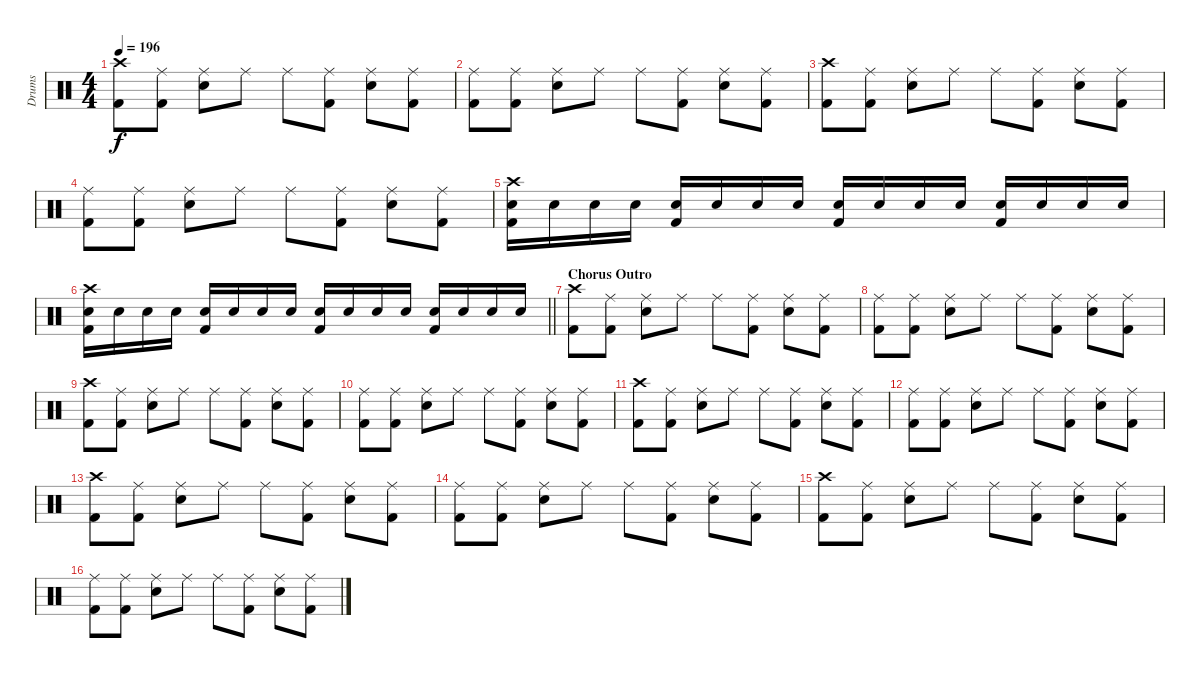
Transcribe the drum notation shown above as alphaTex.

\track ("Drums" "Drums") {instrument percussion}
\staff {score}
\articulation defaults
\ts (4 4)
\tempo 196
\clef neutral
\ks c
("Crash high (hit)" "Kick (hit) 2").8{dy f} ("Ride (middle)" "Kick (hit) 2").8 ("Ride (middle)" "Electric Snare (hit)").8 "Ride (middle)".8 "Ride (middle)".8 ("Ride (middle)" "Kick (hit) 2").8 ("Ride (middle)" "Electric Snare (hit)").8 ("Ride (middle)" "Kick (hit) 2").8 |
("Ride (middle)" "Kick (hit) 2").8 ("Ride (middle)" "Kick (hit) 2").8 ("Ride (middle)" "Electric Snare (hit)").8 "Ride (middle)".8 "Ride (middle)".8 ("Ride (middle)" "Kick (hit) 2").8 ("Ride (middle)" "Electric Snare (hit)").8 ("Ride (middle)" "Kick (hit) 2").8 |
("Crash high (hit)" "Kick (hit) 2").8 ("Ride (middle)" "Kick (hit) 2").8 ("Ride (middle)" "Electric Snare (hit)").8 "Ride (middle)".8 "Ride (middle)".8 ("Ride (middle)" "Kick (hit) 2").8 ("Ride (middle)" "Electric Snare (hit)").8 ("Ride (middle)" "Kick (hit) 2").8 |
("Ride (middle)" "Kick (hit) 2").8 ("Ride (middle)" "Kick (hit) 2").8 ("Ride (middle)" "Electric Snare (hit)").8 "Ride (middle)".8 "Ride (middle)".8 ("Ride (middle)" "Kick (hit) 2").8 ("Ride (middle)" "Electric Snare (hit)").8 ("Ride (middle)" "Kick (hit) 2").8 |
("Crash high (hit)" "Electric Snare (hit)" "Kick (hit) 2").16 "Electric Snare (hit)".16 "Electric Snare (hit)".16 "Electric Snare (hit)".16 ("Electric Snare (hit)" "Kick (hit) 2").16 "Electric Snare (hit)".16 "Electric Snare (hit)".16 "Electric Snare (hit)".16 ("Electric Snare (hit)" "Kick (hit) 2").16 "Electric Snare (hit)".16 "Electric Snare (hit)".16 "Electric Snare (hit)".16 ("Electric Snare (hit)" "Kick (hit) 2").16 "Electric Snare (hit)".16 "Electric Snare (hit)".16 "Electric Snare (hit)".16 |
\barLineRight lightlight
("Crash high (hit)" "Electric Snare (hit)" "Kick (hit) 2").16 "Electric Snare (hit)".16 "Electric Snare (hit)".16 "Electric Snare (hit)".16 ("Electric Snare (hit)" "Kick (hit) 2").16 "Electric Snare (hit)".16 "Electric Snare (hit)".16 "Electric Snare (hit)".16 ("Electric Snare (hit)" "Kick (hit) 2").16 "Electric Snare (hit)".16 "Electric Snare (hit)".16 "Electric Snare (hit)".16 ("Electric Snare (hit)" "Kick (hit) 2").16 "Electric Snare (hit)".16 "Electric Snare (hit)".16 "Electric Snare (hit)".16 |
\section ("" "Chorus Outro")
("Crash high (hit)" "Kick (hit) 2").8 ("Ride (middle)" "Kick (hit) 2").8 ("Ride (middle)" "Electric Snare (hit)").8 "Ride (middle)".8 "Ride (middle)".8 ("Ride (middle)" "Kick (hit) 2").8 ("Ride (middle)" "Electric Snare (hit)").8 ("Ride (middle)" "Kick (hit) 2").8 |
("Ride (middle)" "Kick (hit) 2").8 ("Ride (middle)" "Kick (hit) 2").8 ("Ride (middle)" "Electric Snare (hit)").8 "Ride (middle)".8 "Ride (middle)".8 ("Ride (middle)" "Kick (hit) 2").8 ("Ride (middle)" "Electric Snare (hit)").8 ("Ride (middle)" "Kick (hit) 2").8 |
("Crash high (hit)" "Kick (hit) 2").8 ("Ride (middle)" "Kick (hit) 2").8 ("Ride (middle)" "Electric Snare (hit)").8 "Ride (middle)".8 "Ride (middle)".8 ("Ride (middle)" "Kick (hit) 2").8 ("Ride (middle)" "Electric Snare (hit)").8 ("Ride (middle)" "Kick (hit) 2").8 |
("Ride (middle)" "Kick (hit) 2").8 ("Ride (middle)" "Kick (hit) 2").8 ("Ride (middle)" "Electric Snare (hit)").8 "Ride (middle)".8 "Ride (middle)".8 ("Ride (middle)" "Kick (hit) 2").8 ("Ride (middle)" "Electric Snare (hit)").8 ("Ride (middle)" "Kick (hit) 2").8 |
("Crash high (hit)" "Kick (hit) 2").8 ("Ride (middle)" "Kick (hit) 2").8 ("Ride (middle)" "Electric Snare (hit)").8 "Ride (middle)".8 "Ride (middle)".8 ("Ride (middle)" "Kick (hit) 2").8 ("Ride (middle)" "Electric Snare (hit)").8 ("Ride (middle)" "Kick (hit) 2").8 |
("Ride (middle)" "Kick (hit) 2").8 ("Ride (middle)" "Kick (hit) 2").8 ("Ride (middle)" "Electric Snare (hit)").8 "Ride (middle)".8 "Ride (middle)".8 ("Ride (middle)" "Kick (hit) 2").8 ("Ride (middle)" "Electric Snare (hit)").8 ("Ride (middle)" "Kick (hit) 2").8 |
("Crash high (hit)" "Kick (hit) 2").8 ("Ride (middle)" "Kick (hit) 2").8 ("Ride (middle)" "Electric Snare (hit)").8 "Ride (middle)".8 "Ride (middle)".8 ("Ride (middle)" "Kick (hit) 2").8 ("Ride (middle)" "Electric Snare (hit)").8 ("Ride (middle)" "Kick (hit) 2").8 |
("Ride (middle)" "Kick (hit) 2").8 ("Ride (middle)" "Kick (hit) 2").8 ("Ride (middle)" "Electric Snare (hit)").8 "Ride (middle)".8 "Ride (middle)".8 ("Ride (middle)" "Kick (hit) 2").8 ("Ride (middle)" "Electric Snare (hit)").8 ("Ride (middle)" "Kick (hit) 2").8 |
("Crash high (hit)" "Kick (hit) 2").8 ("Ride (middle)" "Kick (hit) 2").8 ("Ride (middle)" "Electric Snare (hit)").8 "Ride (middle)".8 "Ride (middle)".8 ("Ride (middle)" "Kick (hit) 2").8 ("Ride (middle)" "Electric Snare (hit)").8 ("Ride (middle)" "Kick (hit) 2").8 |
("Ride (middle)" "Kick (hit) 2").8 ("Ride (middle)" "Kick (hit) 2").8 ("Ride (middle)" "Electric Snare (hit)").8 "Ride (middle)".8 "Ride (middle)".8 ("Ride (middle)" "Kick (hit) 2").8 ("Ride (middle)" "Electric Snare (hit)").8 ("Ride (middle)" "Kick (hit) 2").8
